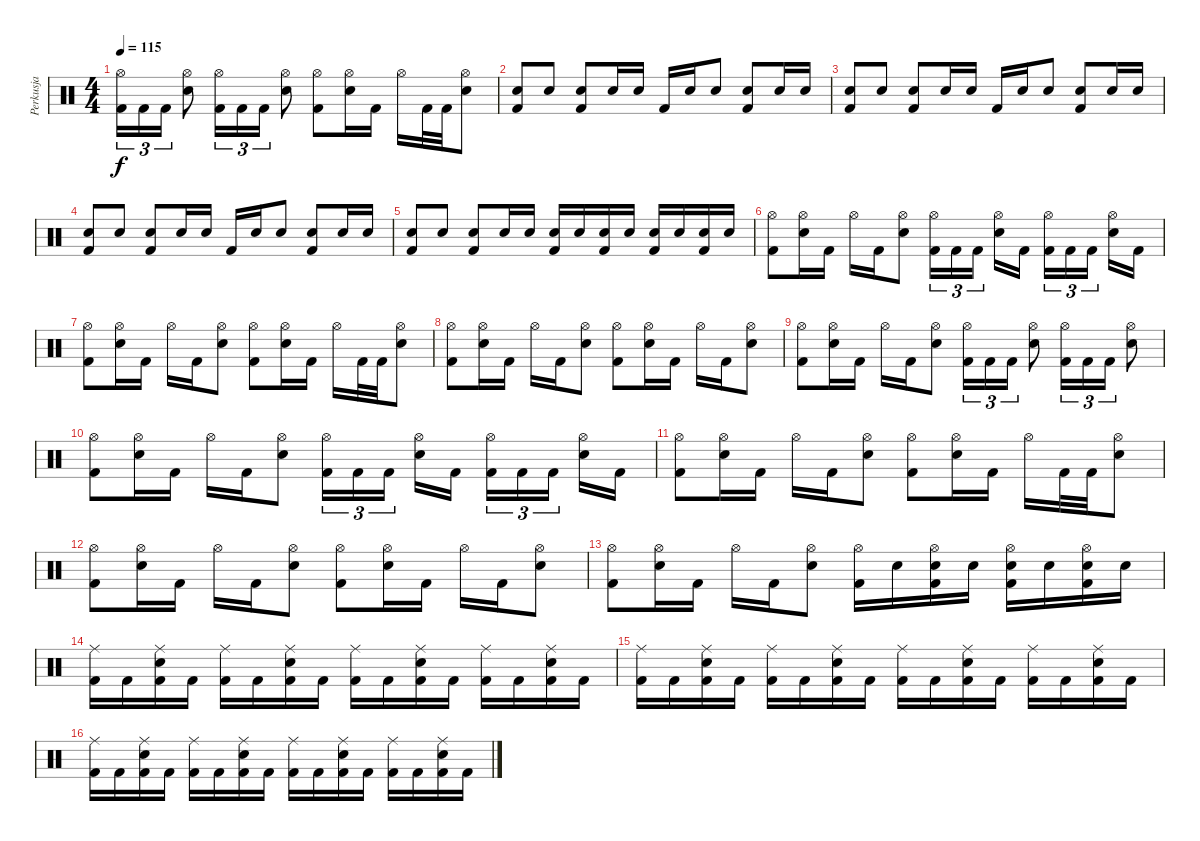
\track ("Perkusja" "Perkusja") {instrument percussion}
\staff {score}
\articulation defaults
\ts (4 4)
\tempo 115
\clef neutral
\ks c
("Hi-Hat (open)" "Kick (hit) 2").16{tu (3 2) dy f} "Kick (hit) 2".16{tu (3 2)} "Kick (hit) 2".16{tu (3 2)} ("Hi-Hat (open)" "Snare (hit) 2").8 ("Hi-Hat (open)" "Kick (hit) 2").16{tu (3 2)} "Kick (hit) 2".16{tu (3 2)} "Kick (hit) 2".16{tu (3 2)} ("Hi-Hat (open)" "Snare (hit) 2").8 ("Hi-Hat (open)" "Kick (hit) 2").8 ("Hi-Hat (open)" "Snare (hit) 2").16 "Kick (hit) 2".16 "Hi-Hat (open)".16 "Kick (hit) 2".32 "Kick (hit) 2".32 ("Hi-Hat (open)" "Snare (hit) 2").8 |
("Snare (hit) 2" "Kick (hit) 2").8 "Snare (hit) 2".8 ("Snare (hit) 2" "Kick (hit) 2").8 "Snare (hit) 2".16 "Snare (hit) 2".16 "Kick (hit) 2".16 "Snare (hit) 2".16 "Snare (hit) 2".8 ("Snare (hit) 2" "Kick (hit) 2").8 "Snare (hit) 2".16 "Snare (hit) 2".16 |
("Snare (hit) 2" "Kick (hit) 2").8 "Snare (hit) 2".8 ("Snare (hit) 2" "Kick (hit) 2").8 "Snare (hit) 2".16 "Snare (hit) 2".16 "Kick (hit) 2".16 "Snare (hit) 2".16 "Snare (hit) 2".8 ("Snare (hit) 2" "Kick (hit) 2").8 "Snare (hit) 2".16 "Snare (hit) 2".16 |
("Snare (hit) 2" "Kick (hit) 2").8 "Snare (hit) 2".8 ("Snare (hit) 2" "Kick (hit) 2").8 "Snare (hit) 2".16 "Snare (hit) 2".16 "Kick (hit) 2".16 "Snare (hit) 2".16 "Snare (hit) 2".8 ("Snare (hit) 2" "Kick (hit) 2").8 "Snare (hit) 2".16 "Snare (hit) 2".16 |
("Snare (hit) 2" "Kick (hit) 2").8 "Snare (hit) 2".8 ("Snare (hit) 2" "Kick (hit) 2").8 "Snare (hit) 2".16 "Snare (hit) 2".16 ("Snare (hit) 2" "Kick (hit) 2").16 "Snare (hit) 2".16 ("Snare (hit) 2" "Kick (hit) 2").16 "Snare (hit) 2".16 ("Snare (hit) 2" "Kick (hit) 2").16 "Snare (hit) 2".16 ("Snare (hit) 2" "Kick (hit) 2").16 "Snare (hit) 2".16 |
("Hi-Hat (open)" "Kick (hit) 2").8 ("Hi-Hat (open)" "Snare (hit) 2").16 "Kick (hit) 2".16 "Hi-Hat (open)".16 "Kick (hit) 2".16 ("Hi-Hat (open)" "Snare (hit) 2").8 ("Hi-Hat (open)" "Kick (hit) 2").16{tu (3 2)} "Kick (hit) 2".16{tu (3 2)} "Kick (hit) 2".16{tu (3 2)} ("Hi-Hat (open)" "Snare (hit) 2").16 "Kick (hit) 2".16 ("Hi-Hat (open)" "Kick (hit) 2").16{tu (3 2)} "Kick (hit) 2".16{tu (3 2)} "Kick (hit) 2".16{tu (3 2)} ("Hi-Hat (open)" "Snare (hit) 2").16 "Kick (hit) 2".16 |
("Hi-Hat (open)" "Kick (hit) 2").8 ("Hi-Hat (open)" "Snare (hit) 2").16 "Kick (hit) 2".16 "Hi-Hat (open)".16 "Kick (hit) 2".16 ("Hi-Hat (open)" "Snare (hit) 2").8 ("Hi-Hat (open)" "Kick (hit) 2").8 ("Hi-Hat (open)" "Snare (hit) 2").16 "Kick (hit) 2".16 "Hi-Hat (open)".16 "Kick (hit) 2".32 "Kick (hit) 2".32 ("Hi-Hat (open)" "Snare (hit) 2").8 |
("Hi-Hat (open)" "Kick (hit) 2").8 ("Hi-Hat (open)" "Snare (hit) 2").16 "Kick (hit) 2".16 "Hi-Hat (open)".16 "Kick (hit) 2".16 ("Hi-Hat (open)" "Snare (hit) 2").8 ("Hi-Hat (open)" "Kick (hit) 2").8 ("Hi-Hat (open)" "Snare (hit) 2").16 "Kick (hit) 2".16 "Hi-Hat (open)".16 "Kick (hit) 2".16 ("Hi-Hat (open)" "Snare (hit) 2").8 |
("Hi-Hat (open)" "Kick (hit) 2").8 ("Hi-Hat (open)" "Snare (hit) 2").16 "Kick (hit) 2".16 "Hi-Hat (open)".16 "Kick (hit) 2".16 ("Hi-Hat (open)" "Snare (hit) 2").8 ("Hi-Hat (open)" "Kick (hit) 2").16{tu (3 2)} "Kick (hit) 2".16{tu (3 2)} "Kick (hit) 2".16{tu (3 2)} ("Hi-Hat (open)" "Snare (hit) 2").8 ("Hi-Hat (open)" "Kick (hit) 2").16{tu (3 2)} "Kick (hit) 2".16{tu (3 2)} "Kick (hit) 2".16{tu (3 2)} ("Hi-Hat (open)" "Snare (hit) 2").8 |
("Hi-Hat (open)" "Kick (hit) 2").8 ("Hi-Hat (open)" "Snare (hit) 2").16 "Kick (hit) 2".16 "Hi-Hat (open)".16 "Kick (hit) 2".16 ("Hi-Hat (open)" "Snare (hit) 2").8 ("Hi-Hat (open)" "Kick (hit) 2").16{tu (3 2)} "Kick (hit) 2".16{tu (3 2)} "Kick (hit) 2".16{tu (3 2)} ("Hi-Hat (open)" "Snare (hit) 2").16 "Kick (hit) 2".16 ("Hi-Hat (open)" "Kick (hit) 2").16{tu (3 2)} "Kick (hit) 2".16{tu (3 2)} "Kick (hit) 2".16{tu (3 2)} ("Hi-Hat (open)" "Snare (hit) 2").16 "Kick (hit) 2".16 |
("Hi-Hat (open)" "Kick (hit) 2").8 ("Hi-Hat (open)" "Snare (hit) 2").16 "Kick (hit) 2".16 "Hi-Hat (open)".16 "Kick (hit) 2".16 ("Hi-Hat (open)" "Snare (hit) 2").8 ("Hi-Hat (open)" "Kick (hit) 2").8 ("Hi-Hat (open)" "Snare (hit) 2").16 "Kick (hit) 2".16 "Hi-Hat (open)".16 "Kick (hit) 2".32 "Kick (hit) 2".32 ("Hi-Hat (open)" "Snare (hit) 2").8 |
("Hi-Hat (open)" "Kick (hit) 2").8 ("Hi-Hat (open)" "Snare (hit) 2").16 "Kick (hit) 2".16 "Hi-Hat (open)".16 "Kick (hit) 2".16 ("Hi-Hat (open)" "Snare (hit) 2").8 ("Hi-Hat (open)" "Kick (hit) 2").8 ("Hi-Hat (open)" "Snare (hit) 2").16 "Kick (hit) 2".16 "Hi-Hat (open)".16 "Kick (hit) 2".16 ("Hi-Hat (open)" "Snare (hit) 2").8 |
("Hi-Hat (open)" "Kick (hit) 2").8 ("Hi-Hat (open)" "Snare (hit) 2").16 "Kick (hit) 2".16 "Hi-Hat (open)".16 "Kick (hit) 2".16 ("Hi-Hat (open)" "Snare (hit) 2").8 ("Hi-Hat (open)" "Kick (hit) 2").16 "Snare (hit) 2".16 ("Hi-Hat (open)" "Snare (hit) 2" "Kick (hit) 2").16 "Snare (hit) 2".16 ("Hi-Hat (open)" "Snare (hit) 2" "Kick (hit) 2").16 "Snare (hit) 2".16 ("Hi-Hat (open)" "Snare (hit) 2" "Kick (hit) 2").16 "Snare (hit) 2".16 |
("Ride (middle)" "Kick (hit) 2").16 "Kick (hit) 2".16 ("Ride (middle)" "Snare (hit) 2" "Kick (hit) 2").16 "Kick (hit) 2".16 ("Ride (middle)" "Kick (hit) 2").16 "Kick (hit) 2".16 ("Ride (middle)" "Snare (hit) 2" "Kick (hit) 2").16 "Kick (hit) 2".16 ("Ride (middle)" "Kick (hit) 2").16 "Kick (hit) 2".16 ("Ride (middle)" "Snare (hit) 2" "Kick (hit) 2").16 "Kick (hit) 2".16 ("Ride (middle)" "Kick (hit) 2").16 "Kick (hit) 2".16 ("Ride (middle)" "Snare (hit) 2" "Kick (hit) 2").16 "Kick (hit) 2".16 |
("Ride (middle)" "Kick (hit) 2").16 "Kick (hit) 2".16 ("Ride (middle)" "Snare (hit) 2" "Kick (hit) 2").16 "Kick (hit) 2".16 ("Ride (middle)" "Kick (hit) 2").16 "Kick (hit) 2".16 ("Ride (middle)" "Snare (hit) 2" "Kick (hit) 2").16 "Kick (hit) 2".16 ("Ride (middle)" "Kick (hit) 2").16 "Kick (hit) 2".16 ("Ride (middle)" "Snare (hit) 2" "Kick (hit) 2").16 "Kick (hit) 2".16 ("Ride (middle)" "Kick (hit) 2").16 "Kick (hit) 2".16 ("Ride (middle)" "Snare (hit) 2" "Kick (hit) 2").16 "Kick (hit) 2".16 |
("Ride (middle)" "Kick (hit) 2").16 "Kick (hit) 2".16 ("Ride (middle)" "Snare (hit) 2" "Kick (hit) 2").16 "Kick (hit) 2".16 ("Ride (middle)" "Kick (hit) 2").16 "Kick (hit) 2".16 ("Ride (middle)" "Snare (hit) 2" "Kick (hit) 2").16 "Kick (hit) 2".16 ("Ride (middle)" "Kick (hit) 2").16 "Kick (hit) 2".16 ("Ride (middle)" "Snare (hit) 2" "Kick (hit) 2").16 "Kick (hit) 2".16 ("Ride (middle)" "Kick (hit) 2").16 "Kick (hit) 2".16 ("Ride (middle)" "Snare (hit) 2" "Kick (hit) 2").16 "Kick (hit) 2".16
